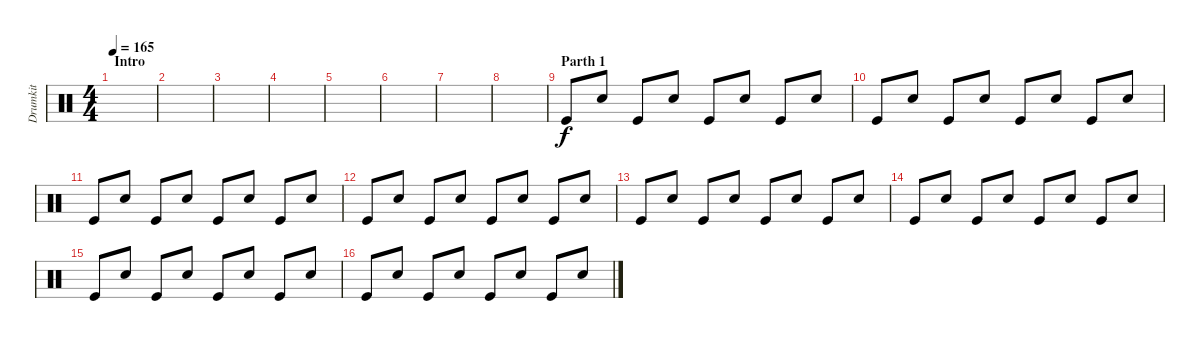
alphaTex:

\track ("Drumkit" "Drumkit") {instrument percussion}
\staff {score}
\articulation defaults
\ts (4 4)
\section ("" "Intro")
\tempo 165
\clef neutral
\ks c
|
|
|
|
|
|
|
|
\section ("" "Parth 1")
"Kick (hit)".8 "Electric Snare (hit)".8 "Kick (hit)".8 "Electric Snare (hit)".8 "Kick (hit)".8 "Electric Snare (hit)".8 "Kick (hit)".8 "Electric Snare (hit)".8 |
"Kick (hit)".8 "Electric Snare (hit)".8 "Kick (hit)".8 "Electric Snare (hit)".8 "Kick (hit)".8 "Electric Snare (hit)".8 "Kick (hit)".8 "Electric Snare (hit)".8 |
"Kick (hit)".8 "Electric Snare (hit)".8 "Kick (hit)".8 "Electric Snare (hit)".8 "Kick (hit)".8 "Electric Snare (hit)".8 "Kick (hit)".8 "Electric Snare (hit)".8 |
"Kick (hit)".8 "Electric Snare (hit)".8 "Kick (hit)".8 "Electric Snare (hit)".8 "Kick (hit)".8 "Electric Snare (hit)".8 "Kick (hit)".8 "Electric Snare (hit)".8 |
"Kick (hit)".8 "Electric Snare (hit)".8 "Kick (hit)".8 "Electric Snare (hit)".8 "Kick (hit)".8 "Electric Snare (hit)".8 "Kick (hit)".8 "Electric Snare (hit)".8 |
"Kick (hit)".8 "Electric Snare (hit)".8 "Kick (hit)".8 "Electric Snare (hit)".8 "Kick (hit)".8 "Electric Snare (hit)".8 "Kick (hit)".8 "Electric Snare (hit)".8 |
"Kick (hit)".8 "Electric Snare (hit)".8 "Kick (hit)".8 "Electric Snare (hit)".8 "Kick (hit)".8 "Electric Snare (hit)".8 "Kick (hit)".8 "Electric Snare (hit)".8 |
"Kick (hit)".8 "Electric Snare (hit)".8 "Kick (hit)".8 "Electric Snare (hit)".8 "Kick (hit)".8 "Electric Snare (hit)".8 "Kick (hit)".8 "Electric Snare (hit)".8
